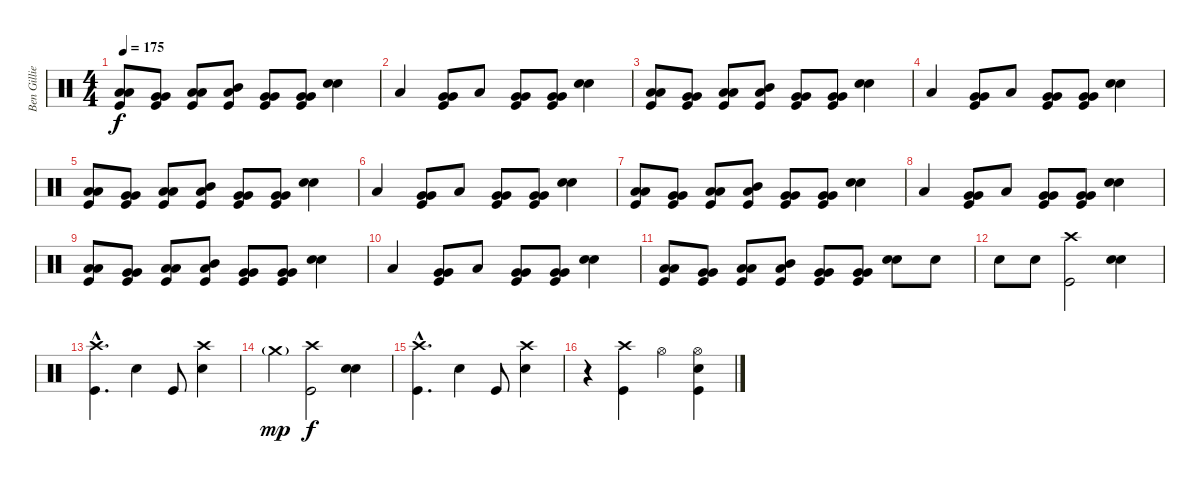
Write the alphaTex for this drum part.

\track ("Ben Gillies" "Ben Gillie") {instrument percussion}
\staff {score}
\articulation defaults
\ts (4 4)
\tempo 175
\clef neutral
\ks c
("Kick (hit)" "Low Tom (hit)" "Low Tom (hit)").8{dy f} ("Kick (hit)" "Very Low Tom (hit)" "Very Low Tom (hit)").8 ("Kick (hit)" "Low Tom (hit)" "Low Tom (hit)").8 ("Kick (hit)" "Mid Tom (hit)" "Low Tom (hit)").8 ("Kick (hit)" "Very Low Tom (hit)" "Very Low Tom (hit)").8 ("Kick (hit)" "Very Low Tom (hit)" "Very Low Tom (hit)").8 ("Snare (hit) 2" "Snare (hit) 2").4{bu 240} |
"Low Tom (hit)".4 ("Kick (hit)" "Very Low Tom (hit)" "Very Low Tom (hit)").8 "Low Tom (hit)".8 ("Kick (hit)" "Very Low Tom (hit)" "Very Low Tom (hit)").8 ("Kick (hit)" "Very Low Tom (hit)" "Very Low Tom (hit)").8 ("Snare (hit) 2" "Snare (hit) 2").4{bu 240} |
("Kick (hit)" "Low Tom (hit)" "Low Tom (hit)").8 ("Kick (hit)" "Very Low Tom (hit)" "Very Low Tom (hit)").8 ("Kick (hit)" "Low Tom (hit)" "Low Tom (hit)").8 ("Kick (hit)" "Mid Tom (hit)" "Low Tom (hit)").8 ("Kick (hit)" "Very Low Tom (hit)" "Very Low Tom (hit)").8 ("Kick (hit)" "Very Low Tom (hit)" "Very Low Tom (hit)").8 ("Snare (hit) 2" "Snare (hit) 2").4{bu 240} |
"Low Tom (hit)".4 ("Kick (hit)" "Very Low Tom (hit)" "Very Low Tom (hit)").8 "Low Tom (hit)".8 ("Kick (hit)" "Very Low Tom (hit)" "Very Low Tom (hit)").8 ("Kick (hit)" "Very Low Tom (hit)" "Very Low Tom (hit)").8 ("Snare (hit) 2" "Snare (hit) 2").4{bu 240} |
("Kick (hit)" "Low Tom (hit)" "Low Tom (hit)").8 ("Kick (hit)" "Very Low Tom (hit)" "Very Low Tom (hit)").8 ("Kick (hit)" "Low Tom (hit)" "Low Tom (hit)").8 ("Kick (hit)" "Mid Tom (hit)" "Low Tom (hit)").8 ("Kick (hit)" "Very Low Tom (hit)" "Very Low Tom (hit)").8 ("Kick (hit)" "Very Low Tom (hit)" "Very Low Tom (hit)").8 ("Snare (hit) 2" "Snare (hit) 2").4{bu 240} |
"Low Tom (hit)".4 ("Kick (hit)" "Very Low Tom (hit)" "Very Low Tom (hit)").8 "Low Tom (hit)".8 ("Kick (hit)" "Very Low Tom (hit)" "Very Low Tom (hit)").8 ("Kick (hit)" "Very Low Tom (hit)" "Very Low Tom (hit)").8 ("Snare (hit) 2" "Snare (hit) 2").4{bu 240} |
("Kick (hit)" "Low Tom (hit)" "Low Tom (hit)").8 ("Kick (hit)" "Very Low Tom (hit)" "Very Low Tom (hit)").8 ("Kick (hit)" "Low Tom (hit)" "Low Tom (hit)").8 ("Kick (hit)" "Mid Tom (hit)" "Low Tom (hit)").8 ("Kick (hit)" "Very Low Tom (hit)" "Very Low Tom (hit)").8 ("Kick (hit)" "Very Low Tom (hit)" "Very Low Tom (hit)").8 ("Snare (hit) 2" "Snare (hit) 2").4{bu 240} |
"Low Tom (hit)".4 ("Kick (hit)" "Very Low Tom (hit)" "Very Low Tom (hit)").8 "Low Tom (hit)".8 ("Kick (hit)" "Very Low Tom (hit)" "Very Low Tom (hit)").8 ("Kick (hit)" "Very Low Tom (hit)" "Very Low Tom (hit)").8 ("Snare (hit) 2" "Snare (hit) 2").4{bu 240} |
("Kick (hit)" "Low Tom (hit)" "Low Tom (hit)").8 ("Kick (hit)" "Very Low Tom (hit)" "Very Low Tom (hit)").8 ("Kick (hit)" "Low Tom (hit)" "Low Tom (hit)").8 ("Kick (hit)" "Mid Tom (hit)" "Low Tom (hit)").8 ("Kick (hit)" "Very Low Tom (hit)" "Very Low Tom (hit)").8 ("Kick (hit)" "Very Low Tom (hit)" "Very Low Tom (hit)").8 ("Snare (hit) 2" "Snare (hit) 2").4{bu 240} |
"Low Tom (hit)".4 ("Kick (hit)" "Very Low Tom (hit)" "Very Low Tom (hit)").8 "Low Tom (hit)".8 ("Kick (hit)" "Very Low Tom (hit)" "Very Low Tom (hit)").8 ("Kick (hit)" "Very Low Tom (hit)" "Very Low Tom (hit)").8 ("Snare (hit) 2" "Snare (hit) 2").4{bu 240} |
("Kick (hit)" "Low Tom (hit)" "Low Tom (hit)").8 ("Kick (hit)" "Very Low Tom (hit)" "Very Low Tom (hit)").8 ("Kick (hit)" "Low Tom (hit)" "Low Tom (hit)").8 ("Kick (hit)" "Mid Tom (hit)" "Low Tom (hit)").8 ("Kick (hit)" "Very Low Tom (hit)" "Very Low Tom (hit)").8 ("Kick (hit)" "Very Low Tom (hit)" "Very Low Tom (hit)").8 ("Snare (hit) 2" "Snare (hit) 2").8{bu 240} "Snare (hit) 2".8 |
"Snare (hit) 2".8 "Snare (hit) 2".8 ("Kick (hit)" "Crash high (hit)").2 ("Snare (hit) 2" "Snare (hit) 2").4{bu 60} |
("Kick (hit)"{hac} "Crash high (hit)"{hac}).4{d} "Snare (hit) 2".4 "Kick (hit)".8 ("Snare (hit) 2" "Crash high (hit)").4 |
"Crash medium (hit)"{g}.4{dy mp} ("Kick (hit)" "Crash high (hit)").2{dy f} ("Snare (hit) 2" "Snare (hit) 2").4{bu 60} |
("Kick (hit)"{hac} "Crash high (hit)"{hac}).4{d} "Snare (hit) 2".4 "Kick (hit)".8 ("Snare (hit) 2" "Crash high (hit)").4 |
r.4 ("Kick (hit)" "Crash high (hit)").4 "Hi-Hat (open)".4 ("Kick (hit)" "Snare (hit) 2" "Hi-Hat (open)").4
